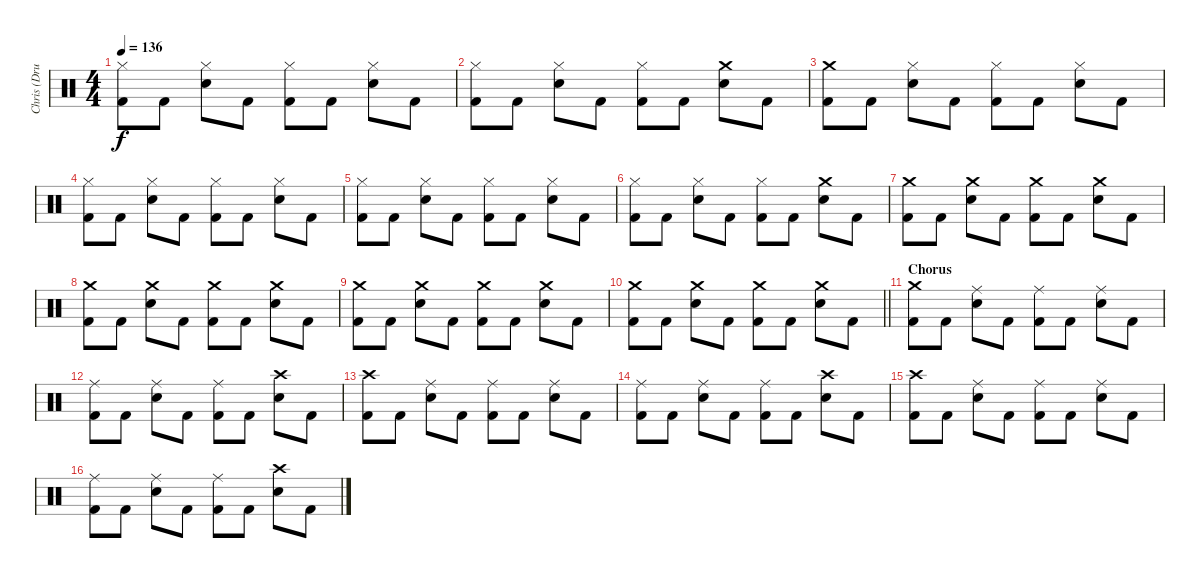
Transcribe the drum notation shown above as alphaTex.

\track ("Chris (Drums)" "Chris (Dru") {instrument percussion}
\staff {score}
\articulation defaults
\ts (4 4)
\tempo 136
\clef neutral
\ks c
("Hi-Hat (closed)" "Kick (hit) 2").8{dy f} "Kick (hit) 2".8 ("Hi-Hat (closed)" "Snare (hit) 2").8 "Kick (hit) 2".8 ("Hi-Hat (closed)" "Kick (hit) 2").8 "Kick (hit) 2".8 ("Hi-Hat (closed)" "Snare (hit) 2").8 "Kick (hit) 2".8 |
("Hi-Hat (closed)" "Kick (hit) 2").8 "Kick (hit) 2".8 ("Hi-Hat (closed)" "Snare (hit) 2").8 "Kick (hit) 2".8 ("Hi-Hat (closed)" "Kick (hit) 2").8 "Kick (hit) 2".8 ("Crash medium (hit)" "Snare (hit) 2").8 "Kick (hit) 2".8 |
("Crash medium (hit)" "Kick (hit) 2").8 "Kick (hit) 2".8 ("Hi-Hat (closed)" "Snare (hit) 2").8 "Kick (hit) 2".8 ("Hi-Hat (closed)" "Kick (hit) 2").8 "Kick (hit) 2".8 ("Hi-Hat (closed)" "Snare (hit) 2").8 "Kick (hit) 2".8 |
("Hi-Hat (closed)" "Kick (hit) 2").8 "Kick (hit) 2".8 ("Hi-Hat (closed)" "Snare (hit) 2").8 "Kick (hit) 2".8 ("Hi-Hat (closed)" "Kick (hit) 2").8 "Kick (hit) 2".8 ("Hi-Hat (closed)" "Snare (hit) 2").8 "Kick (hit) 2".8 |
("Hi-Hat (closed)" "Kick (hit) 2").8 "Kick (hit) 2".8 ("Hi-Hat (closed)" "Snare (hit) 2").8 "Kick (hit) 2".8 ("Hi-Hat (closed)" "Kick (hit) 2").8 "Kick (hit) 2".8 ("Hi-Hat (closed)" "Snare (hit) 2").8 "Kick (hit) 2".8 |
("Hi-Hat (closed)" "Kick (hit) 2").8 "Kick (hit) 2".8 ("Hi-Hat (closed)" "Snare (hit) 2").8 "Kick (hit) 2".8 ("Hi-Hat (closed)" "Kick (hit) 2").8 "Kick (hit) 2".8 ("Crash medium (hit)" "Snare (hit) 2").8 "Kick (hit) 2".8 |
("Crash medium (hit)" "Kick (hit) 2").8 "Kick (hit) 2".8 ("Crash medium (hit)" "Snare (hit) 2").8 "Kick (hit) 2".8 ("Crash medium (hit)" "Kick (hit) 2").8 "Kick (hit) 2".8 ("Crash medium (hit)" "Snare (hit) 2").8 "Kick (hit) 2".8 |
("Crash medium (hit)" "Kick (hit) 2").8 "Kick (hit) 2".8 ("Crash medium (hit)" "Snare (hit) 2").8 "Kick (hit) 2".8 ("Crash medium (hit)" "Kick (hit) 2").8 "Kick (hit) 2".8 ("Crash medium (hit)" "Snare (hit) 2").8 "Kick (hit) 2".8 |
("Crash medium (hit)" "Kick (hit) 2").8 "Kick (hit) 2".8 ("Crash medium (hit)" "Snare (hit) 2").8 "Kick (hit) 2".8 ("Crash medium (hit)" "Kick (hit) 2").8 "Kick (hit) 2".8 ("Crash medium (hit)" "Snare (hit) 2").8 "Kick (hit) 2".8 |
\barLineRight lightlight
("Crash medium (hit)" "Kick (hit) 2").8 "Kick (hit) 2".8 ("Crash medium (hit)" "Snare (hit) 2").8 "Kick (hit) 2".8 ("Crash medium (hit)" "Kick (hit) 2").8 "Kick (hit) 2".8 ("Crash medium (hit)" "Snare (hit) 2").8 "Kick (hit) 2".8 |
\section ("" "Chorus")
("Crash medium (hit)" "Kick (hit) 2").8 "Kick (hit) 2".8 ("Ride (middle)" "Snare (hit) 2").8 "Kick (hit) 2".8 ("Ride (middle)" "Kick (hit) 2").8 "Kick (hit) 2".8 ("Ride (middle)" "Snare (hit) 2").8 "Kick (hit) 2".8 |
("Ride (middle)" "Kick (hit) 2").8 "Kick (hit) 2".8 ("Ride (middle)" "Snare (hit) 2").8 "Kick (hit) 2".8 ("Ride (middle)" "Kick (hit) 2").8 "Kick (hit) 2".8 ("Crash high (hit)" "Snare (hit) 2").8 "Kick (hit) 2".8 |
("Crash high (hit)" "Kick (hit) 2").8 "Kick (hit) 2".8 ("Ride (middle)" "Snare (hit) 2").8 "Kick (hit) 2".8 ("Ride (middle)" "Kick (hit) 2").8 "Kick (hit) 2".8 ("Ride (middle)" "Snare (hit) 2").8 "Kick (hit) 2".8 |
("Ride (middle)" "Kick (hit) 2").8 "Kick (hit) 2".8 ("Ride (middle)" "Snare (hit) 2").8 "Kick (hit) 2".8 ("Ride (middle)" "Kick (hit) 2").8 "Kick (hit) 2".8 ("Crash high (hit)" "Snare (hit) 2").8 "Kick (hit) 2".8 |
("Crash high (hit)" "Kick (hit) 2").8 "Kick (hit) 2".8 ("Ride (middle)" "Snare (hit) 2").8 "Kick (hit) 2".8 ("Ride (middle)" "Kick (hit) 2").8 "Kick (hit) 2".8 ("Ride (middle)" "Snare (hit) 2").8 "Kick (hit) 2".8 |
("Ride (middle)" "Kick (hit) 2").8 "Kick (hit) 2".8 ("Ride (middle)" "Snare (hit) 2").8 "Kick (hit) 2".8 ("Ride (middle)" "Kick (hit) 2").8 "Kick (hit) 2".8 ("Crash high (hit)" "Snare (hit) 2").8 "Kick (hit) 2".8
